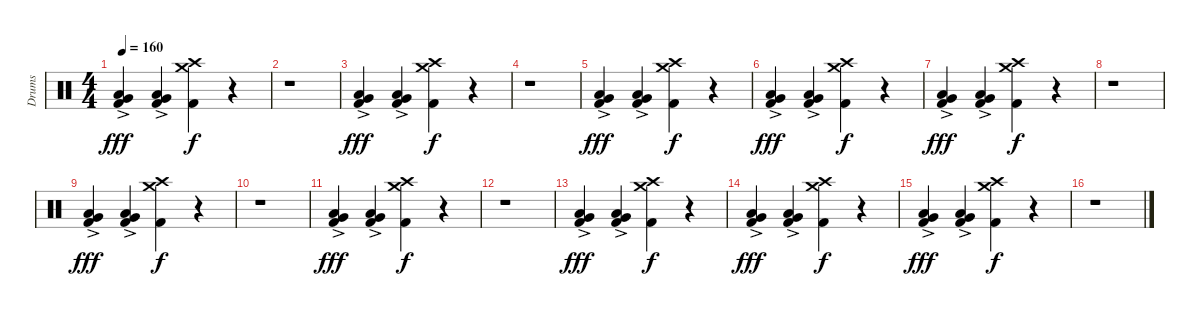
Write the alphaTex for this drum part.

\track ("Drums" "Drums") {instrument percussion}
\staff {score}
\articulation defaults
\ts (4 4)
\tempo 160
\clef neutral
\ks c
("Very Low Tom (hit)"{ac} "Low Floor Tom (hit)"{ac} "Kick (hit) 2"{ac}).4{dy fff} ("Very Low Tom (hit)"{ac} "Low Floor Tom (hit)"{ac} "Kick (hit) 2"{ac}).4 ("Crash high (hit)" "Crash medium (hit)" "Kick (hit) 2").4{dy f} r.4 |
r.1 |
("Very Low Tom (hit)"{ac} "Low Floor Tom (hit)"{ac} "Kick (hit) 2"{ac}).4{dy fff} ("Very Low Tom (hit)"{ac} "Low Floor Tom (hit)"{ac} "Kick (hit) 2"{ac}).4 ("Crash high (hit)" "Crash medium (hit)" "Kick (hit) 2").4{dy f} r.4 |
r.1 |
("Very Low Tom (hit)"{ac} "Low Floor Tom (hit)"{ac} "Kick (hit) 2"{ac}).4{dy fff} ("Very Low Tom (hit)"{ac} "Low Floor Tom (hit)"{ac} "Kick (hit) 2"{ac}).4 ("Crash high (hit)" "Crash medium (hit)" "Kick (hit) 2").4{dy f} r.4 |
("Very Low Tom (hit)"{ac} "Low Floor Tom (hit)"{ac} "Kick (hit) 2"{ac}).4{dy fff} ("Very Low Tom (hit)"{ac} "Low Floor Tom (hit)"{ac} "Kick (hit) 2"{ac}).4 ("Crash high (hit)" "Crash medium (hit)" "Kick (hit) 2").4{dy f} r.4 |
("Very Low Tom (hit)"{ac} "Low Floor Tom (hit)"{ac} "Kick (hit) 2"{ac}).4{dy fff} ("Very Low Tom (hit)"{ac} "Low Floor Tom (hit)"{ac} "Kick (hit) 2"{ac}).4 ("Crash high (hit)" "Crash medium (hit)" "Kick (hit) 2").4{dy f} r.4 |
r.1 |
("Very Low Tom (hit)"{ac} "Low Floor Tom (hit)"{ac} "Kick (hit) 2"{ac}).4{dy fff} ("Very Low Tom (hit)"{ac} "Low Floor Tom (hit)"{ac} "Kick (hit) 2"{ac}).4 ("Crash high (hit)" "Crash medium (hit)" "Kick (hit) 2").4{dy f} r.4 |
r.1 |
("Very Low Tom (hit)"{ac} "Low Floor Tom (hit)"{ac} "Kick (hit) 2"{ac}).4{dy fff} ("Very Low Tom (hit)"{ac} "Low Floor Tom (hit)"{ac} "Kick (hit) 2"{ac}).4 ("Crash high (hit)" "Crash medium (hit)" "Kick (hit) 2").4{dy f} r.4 |
r.1 |
("Very Low Tom (hit)"{ac} "Low Floor Tom (hit)"{ac} "Kick (hit) 2"{ac}).4{dy fff} ("Very Low Tom (hit)"{ac} "Low Floor Tom (hit)"{ac} "Kick (hit) 2"{ac}).4 ("Crash high (hit)" "Crash medium (hit)" "Kick (hit) 2").4{dy f} r.4 |
("Very Low Tom (hit)"{ac} "Low Floor Tom (hit)"{ac} "Kick (hit) 2"{ac}).4{dy fff} ("Very Low Tom (hit)"{ac} "Low Floor Tom (hit)"{ac} "Kick (hit) 2"{ac}).4 ("Crash high (hit)" "Crash medium (hit)" "Kick (hit) 2").4{dy f} r.4 |
("Very Low Tom (hit)"{ac} "Low Floor Tom (hit)"{ac} "Kick (hit) 2"{ac}).4{dy fff} ("Very Low Tom (hit)"{ac} "Low Floor Tom (hit)"{ac} "Kick (hit) 2"{ac}).4 ("Crash high (hit)" "Crash medium (hit)" "Kick (hit) 2").4{dy f} r.4 |
r.1
